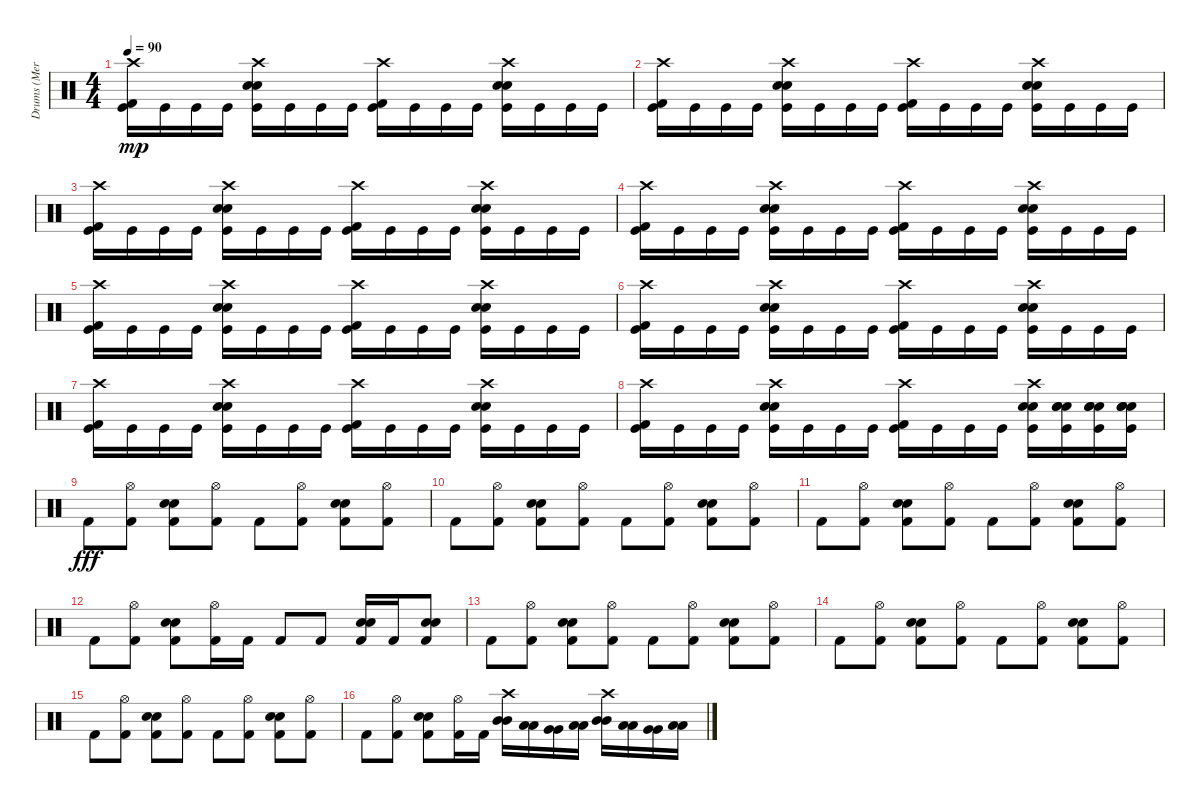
\track ("Drums (Merlin)" "Drums (Mer") {instrument percussion}
\staff {score}
\articulation defaults
\ts (4 4)
\tempo 90
\clef neutral
\ks c
("Crash high (hit)" "Kick (hit) 2" "Kick (hit)").16{dy mp} "Kick (hit)".16 "Kick (hit)".16 "Kick (hit)".16 ("Electric Snare (hit)" "Crash high (hit)" "Snare (hit) 2" "Kick (hit)").16 "Kick (hit)".16 "Kick (hit)".16 "Kick (hit)".16 ("Crash high (hit)" "Kick (hit) 2" "Kick (hit)").16 "Kick (hit)".16 "Kick (hit)".16 "Kick (hit)".16 ("Electric Snare (hit)" "Crash high (hit)" "Snare (hit) 2" "Kick (hit)").16 "Kick (hit)".16 "Kick (hit)".16 "Kick (hit)".16 |
("Crash high (hit)" "Kick (hit) 2" "Kick (hit)").16 "Kick (hit)".16 "Kick (hit)".16 "Kick (hit)".16 ("Electric Snare (hit)" "Crash high (hit)" "Snare (hit) 2" "Kick (hit)").16 "Kick (hit)".16 "Kick (hit)".16 "Kick (hit)".16 ("Crash high (hit)" "Kick (hit) 2" "Kick (hit)").16 "Kick (hit)".16 "Kick (hit)".16 "Kick (hit)".16 ("Electric Snare (hit)" "Crash high (hit)" "Snare (hit) 2" "Kick (hit)").16 "Kick (hit)".16 "Kick (hit)".16 "Kick (hit)".16 |
("Crash high (hit)" "Kick (hit) 2" "Kick (hit)").16 "Kick (hit)".16 "Kick (hit)".16 "Kick (hit)".16 ("Electric Snare (hit)" "Crash high (hit)" "Snare (hit) 2" "Kick (hit)").16 "Kick (hit)".16 "Kick (hit)".16 "Kick (hit)".16 ("Crash high (hit)" "Kick (hit) 2" "Kick (hit)").16 "Kick (hit)".16 "Kick (hit)".16 "Kick (hit)".16 ("Electric Snare (hit)" "Crash high (hit)" "Snare (hit) 2" "Kick (hit)").16 "Kick (hit)".16 "Kick (hit)".16 "Kick (hit)".16 |
("Crash high (hit)" "Kick (hit) 2" "Kick (hit)").16 "Kick (hit)".16 "Kick (hit)".16 "Kick (hit)".16 ("Electric Snare (hit)" "Crash high (hit)" "Snare (hit) 2" "Kick (hit)").16 "Kick (hit)".16 "Kick (hit)".16 "Kick (hit)".16 ("Crash high (hit)" "Kick (hit) 2" "Kick (hit)").16 "Kick (hit)".16 "Kick (hit)".16 "Kick (hit)".16 ("Electric Snare (hit)" "Crash high (hit)" "Snare (hit) 2" "Kick (hit)").16 "Kick (hit)".16 "Kick (hit)".16 "Kick (hit)".16 |
("Crash high (hit)" "Kick (hit) 2" "Kick (hit)").16 "Kick (hit)".16 "Kick (hit)".16 "Kick (hit)".16 ("Electric Snare (hit)" "Crash high (hit)" "Snare (hit) 2" "Kick (hit)").16 "Kick (hit)".16 "Kick (hit)".16 "Kick (hit)".16 ("Crash high (hit)" "Kick (hit) 2" "Kick (hit)").16 "Kick (hit)".16 "Kick (hit)".16 "Kick (hit)".16 ("Electric Snare (hit)" "Crash high (hit)" "Snare (hit) 2" "Kick (hit)").16 "Kick (hit)".16 "Kick (hit)".16 "Kick (hit)".16 |
("Crash high (hit)" "Kick (hit) 2" "Kick (hit)").16 "Kick (hit)".16 "Kick (hit)".16 "Kick (hit)".16 ("Electric Snare (hit)" "Crash high (hit)" "Snare (hit) 2" "Kick (hit)").16 "Kick (hit)".16 "Kick (hit)".16 "Kick (hit)".16 ("Crash high (hit)" "Kick (hit) 2" "Kick (hit)").16 "Kick (hit)".16 "Kick (hit)".16 "Kick (hit)".16 ("Electric Snare (hit)" "Crash high (hit)" "Snare (hit) 2" "Kick (hit)").16 "Kick (hit)".16 "Kick (hit)".16 "Kick (hit)".16 |
("Crash high (hit)" "Kick (hit) 2" "Kick (hit)").16 "Kick (hit)".16 "Kick (hit)".16 "Kick (hit)".16 ("Electric Snare (hit)" "Crash high (hit)" "Snare (hit) 2" "Kick (hit)").16 "Kick (hit)".16 "Kick (hit)".16 "Kick (hit)".16 ("Crash high (hit)" "Kick (hit) 2" "Kick (hit)").16 "Kick (hit)".16 "Kick (hit)".16 "Kick (hit)".16 ("Electric Snare (hit)" "Crash high (hit)" "Snare (hit) 2" "Kick (hit)").16 "Kick (hit)".16 "Kick (hit)".16 "Kick (hit)".16 |
("Crash high (hit)" "Kick (hit) 2" "Kick (hit)").16 "Kick (hit)".16 "Kick (hit)".16 "Kick (hit)".16 ("Electric Snare (hit)" "Crash high (hit)" "Snare (hit) 2" "Kick (hit)").16 "Kick (hit)".16 "Kick (hit)".16 "Kick (hit)".16 ("Crash high (hit)" "Kick (hit) 2" "Kick (hit)").16 "Kick (hit)".16 "Kick (hit)".16 "Kick (hit)".16 ("Electric Snare (hit)" "Crash high (hit)" "Snare (hit) 2" "Kick (hit)").16 ("Electric Snare (hit)" "Snare (hit) 2" "Snare (hit) 2" "Kick (hit)").16 ("Electric Snare (hit)" "Snare (hit) 2" "Snare (hit) 2" "Kick (hit)").16 ("Electric Snare (hit)" "Snare (hit) 2" "Snare (hit) 2" "Kick (hit)").16 |
"Kick (hit) 2".8{dy fff} ("Hi-Hat (open)" "Kick (hit) 2").8 ("Electric Snare (hit)" "Snare (hit) 2" "Kick (hit) 2").8 ("Hi-Hat (open)" "Kick (hit) 2").8 "Kick (hit) 2".8 ("Hi-Hat (open)" "Kick (hit) 2").8 ("Electric Snare (hit)" "Snare (hit) 2" "Kick (hit) 2").8 ("Hi-Hat (open)" "Kick (hit) 2").8 |
"Kick (hit) 2".8 ("Hi-Hat (open)" "Kick (hit) 2").8 ("Electric Snare (hit)" "Snare (hit) 2" "Kick (hit) 2").8 ("Hi-Hat (open)" "Kick (hit) 2").8 "Kick (hit) 2".8 ("Hi-Hat (open)" "Kick (hit) 2").8 ("Electric Snare (hit)" "Snare (hit) 2" "Kick (hit) 2").8 ("Hi-Hat (open)" "Kick (hit) 2").8 |
"Kick (hit) 2".8 ("Hi-Hat (open)" "Kick (hit) 2").8 ("Electric Snare (hit)" "Snare (hit) 2" "Kick (hit) 2").8 ("Hi-Hat (open)" "Kick (hit) 2").8 "Kick (hit) 2".8 ("Hi-Hat (open)" "Kick (hit) 2").8 ("Electric Snare (hit)" "Snare (hit) 2" "Kick (hit) 2").8 ("Hi-Hat (open)" "Kick (hit) 2").8 |
"Kick (hit) 2".8 ("Hi-Hat (open)" "Kick (hit) 2").8 ("Electric Snare (hit)" "Snare (hit) 2" "Kick (hit) 2").8 ("Hi-Hat (open)" "Kick (hit) 2").16 "Kick (hit) 2".16 "Kick (hit) 2".8 "Kick (hit) 2".8 ("Electric Snare (hit)" "Snare (hit) 2" "Kick (hit) 2").16 "Kick (hit) 2".16 ("Electric Snare (hit)" "Snare (hit) 2" "Kick (hit) 2").8 |
"Kick (hit) 2".8 ("Hi-Hat (open)" "Kick (hit) 2").8 ("Electric Snare (hit)" "Snare (hit) 2" "Kick (hit) 2").8 ("Hi-Hat (open)" "Kick (hit) 2").8 "Kick (hit) 2".8 ("Hi-Hat (open)" "Kick (hit) 2").8 ("Electric Snare (hit)" "Snare (hit) 2" "Kick (hit) 2").8 ("Hi-Hat (open)" "Kick (hit) 2").8 |
"Kick (hit) 2".8 ("Hi-Hat (open)" "Kick (hit) 2").8 ("Electric Snare (hit)" "Snare (hit) 2" "Kick (hit) 2").8 ("Hi-Hat (open)" "Kick (hit) 2").8 "Kick (hit) 2".8 ("Hi-Hat (open)" "Kick (hit) 2").8 ("Electric Snare (hit)" "Snare (hit) 2" "Kick (hit) 2").8 ("Hi-Hat (open)" "Kick (hit) 2").8 |
"Kick (hit) 2".8 ("Hi-Hat (open)" "Kick (hit) 2").8 ("Electric Snare (hit)" "Snare (hit) 2" "Kick (hit) 2").8 ("Hi-Hat (open)" "Kick (hit) 2").8 "Kick (hit) 2".8 ("Hi-Hat (open)" "Kick (hit) 2").8 ("Electric Snare (hit)" "Snare (hit) 2" "Kick (hit) 2").8 ("Hi-Hat (open)" "Kick (hit) 2").8 |
"Kick (hit) 2".8 ("Hi-Hat (open)" "Kick (hit) 2").8 ("Electric Snare (hit)" "Snare (hit) 2" "Kick (hit) 2").8 ("Hi-Hat (open)" "Kick (hit) 2").16 "Kick (hit) 2".16 ("Crash high (hit)" "Mid Tom (hit)" "Mid Tom (hit)").16 ("Low Tom (hit)" "Low Tom (hit)").16 ("Very Low Tom (hit)" "Very Low Tom (hit)").16 ("Low Floor Tom (hit)" "Low Floor Tom (hit)").16 ("Crash high (hit)" "Mid Tom (hit)" "Mid Tom (hit)").16 ("Low Tom (hit)" "Low Tom (hit)").16 ("Very Low Tom (hit)" "Very Low Tom (hit)").16 ("Low Floor Tom (hit)" "Low Floor Tom (hit)").16
